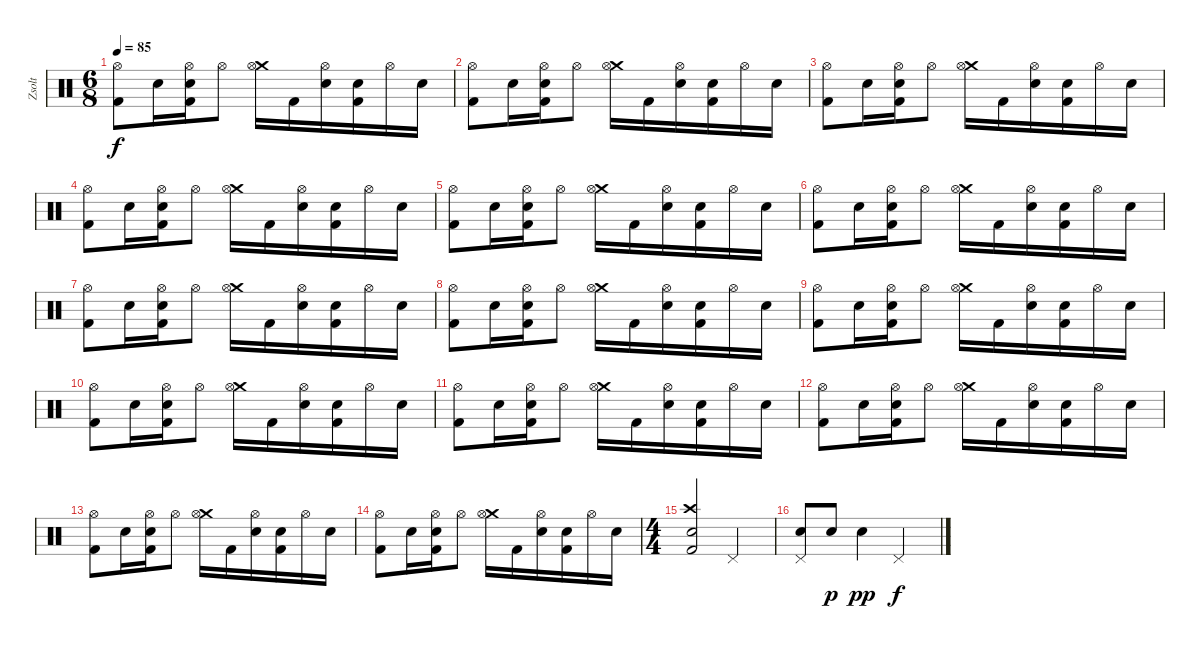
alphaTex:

\track ("Zsolt" "Zsolt") {instrument percussion}
\staff {score}
\articulation defaults
\ts (6 8)
\tempo 85
\clef neutral
\ks c
("Hi-Hat (open)" "Kick (hit) 2").8{dy f} "Snare (hit) 2".16 ("Hi-Hat (open)" "Snare (hit) 2" "Kick (hit) 2").16 "Hi-Hat (open)".8 ("Crash medium (hit)" "Hi-Hat (open)").16 "Kick (hit) 2".16 ("Hi-Hat (open)" "Snare (hit) 2").16 ("Snare (hit) 2" "Kick (hit) 2").16 "Hi-Hat (open)".16 "Snare (hit) 2".16 |
("Hi-Hat (open)" "Kick (hit) 2").8 "Snare (hit) 2".16 ("Hi-Hat (open)" "Snare (hit) 2" "Kick (hit) 2").16 "Hi-Hat (open)".8 ("Crash medium (hit)" "Hi-Hat (open)").16 "Kick (hit) 2".16 ("Hi-Hat (open)" "Snare (hit) 2").16 ("Snare (hit) 2" "Kick (hit) 2").16 "Hi-Hat (open)".16 "Snare (hit) 2".16 |
("Hi-Hat (open)" "Kick (hit) 2").8 "Snare (hit) 2".16 ("Hi-Hat (open)" "Snare (hit) 2" "Kick (hit) 2").16 "Hi-Hat (open)".8 ("Crash medium (hit)" "Hi-Hat (open)").16 "Kick (hit) 2".16 ("Hi-Hat (open)" "Snare (hit) 2").16 ("Snare (hit) 2" "Kick (hit) 2").16 "Hi-Hat (open)".16 "Snare (hit) 2".16 |
("Hi-Hat (open)" "Kick (hit) 2").8 "Snare (hit) 2".16 ("Hi-Hat (open)" "Snare (hit) 2" "Kick (hit) 2").16 "Hi-Hat (open)".8 ("Crash medium (hit)" "Hi-Hat (open)").16 "Kick (hit) 2".16 ("Hi-Hat (open)" "Snare (hit) 2").16 ("Snare (hit) 2" "Kick (hit) 2").16 "Hi-Hat (open)".16 "Snare (hit) 2".16 |
("Hi-Hat (open)" "Kick (hit) 2").8 "Snare (hit) 2".16 ("Hi-Hat (open)" "Snare (hit) 2" "Kick (hit) 2").16 "Hi-Hat (open)".8 ("Crash medium (hit)" "Hi-Hat (open)").16 "Kick (hit) 2".16 ("Hi-Hat (open)" "Snare (hit) 2").16 ("Snare (hit) 2" "Kick (hit) 2").16 "Hi-Hat (open)".16 "Snare (hit) 2".16 |
("Hi-Hat (open)" "Kick (hit) 2").8 "Snare (hit) 2".16 ("Hi-Hat (open)" "Snare (hit) 2" "Kick (hit) 2").16 "Hi-Hat (open)".8 ("Crash medium (hit)" "Hi-Hat (open)").16 "Kick (hit) 2".16 ("Hi-Hat (open)" "Snare (hit) 2").16 ("Snare (hit) 2" "Kick (hit) 2").16 "Hi-Hat (open)".16 "Snare (hit) 2".16 |
("Hi-Hat (open)" "Kick (hit) 2").8 "Snare (hit) 2".16 ("Hi-Hat (open)" "Snare (hit) 2" "Kick (hit) 2").16 "Hi-Hat (open)".8 ("Crash medium (hit)" "Hi-Hat (open)").16 "Kick (hit) 2".16 ("Hi-Hat (open)" "Snare (hit) 2").16 ("Snare (hit) 2" "Kick (hit) 2").16 "Hi-Hat (open)".16 "Snare (hit) 2".16 |
("Hi-Hat (open)" "Kick (hit) 2").8 "Snare (hit) 2".16 ("Hi-Hat (open)" "Snare (hit) 2" "Kick (hit) 2").16 "Hi-Hat (open)".8 ("Crash medium (hit)" "Hi-Hat (open)").16 "Kick (hit) 2".16 ("Hi-Hat (open)" "Snare (hit) 2").16 ("Snare (hit) 2" "Kick (hit) 2").16 "Hi-Hat (open)".16 "Snare (hit) 2".16 |
("Hi-Hat (open)" "Kick (hit) 2").8 "Snare (hit) 2".16 ("Hi-Hat (open)" "Snare (hit) 2" "Kick (hit) 2").16 "Hi-Hat (open)".8 ("Crash medium (hit)" "Hi-Hat (open)").16 "Kick (hit) 2".16 ("Hi-Hat (open)" "Snare (hit) 2").16 ("Snare (hit) 2" "Kick (hit) 2").16 "Hi-Hat (open)".16 "Snare (hit) 2".16 |
("Hi-Hat (open)" "Kick (hit) 2").8 "Snare (hit) 2".16 ("Hi-Hat (open)" "Snare (hit) 2" "Kick (hit) 2").16 "Hi-Hat (open)".8 ("Crash medium (hit)" "Hi-Hat (open)").16 "Kick (hit) 2".16 ("Hi-Hat (open)" "Snare (hit) 2").16 ("Snare (hit) 2" "Kick (hit) 2").16 "Hi-Hat (open)".16 "Snare (hit) 2".16 |
("Hi-Hat (open)" "Kick (hit) 2").8 "Snare (hit) 2".16 ("Hi-Hat (open)" "Snare (hit) 2" "Kick (hit) 2").16 "Hi-Hat (open)".8 ("Crash medium (hit)" "Hi-Hat (open)").16 "Kick (hit) 2".16 ("Hi-Hat (open)" "Snare (hit) 2").16 ("Snare (hit) 2" "Kick (hit) 2").16 "Hi-Hat (open)".16 "Snare (hit) 2".16 |
("Hi-Hat (open)" "Kick (hit) 2").8 "Snare (hit) 2".16 ("Hi-Hat (open)" "Snare (hit) 2" "Kick (hit) 2").16 "Hi-Hat (open)".8 ("Crash medium (hit)" "Hi-Hat (open)").16 "Kick (hit) 2".16 ("Hi-Hat (open)" "Snare (hit) 2").16 ("Snare (hit) 2" "Kick (hit) 2").16 "Hi-Hat (open)".16 "Snare (hit) 2".16 |
("Hi-Hat (open)" "Kick (hit) 2").8 "Snare (hit) 2".16 ("Hi-Hat (open)" "Snare (hit) 2" "Kick (hit) 2").16 "Hi-Hat (open)".8 ("Crash medium (hit)" "Hi-Hat (open)").16 "Kick (hit) 2".16 ("Hi-Hat (open)" "Snare (hit) 2").16 ("Snare (hit) 2" "Kick (hit) 2").16 "Hi-Hat (open)".16 "Snare (hit) 2".16 |
("Hi-Hat (open)" "Kick (hit) 2").8 "Snare (hit) 2".16 ("Hi-Hat (open)" "Snare (hit) 2" "Kick (hit) 2").16 "Hi-Hat (open)".8 ("Crash medium (hit)" "Hi-Hat (open)").16 "Kick (hit) 2".16 ("Hi-Hat (open)" "Snare (hit) 2").16 ("Snare (hit) 2" "Kick (hit) 2").16 "Hi-Hat (open)".16 "Snare (hit) 2".16 |
\ts (4 4)
("Crash high (hit)" "Electric Snare (hit)" "Kick (hit) 2").2 "Pedal Hi-Hat (hit)".2 |
("Pedal Hi-Hat (hit)" "Electric Snare (hit)").8 "Electric Snare (hit)".8{dy p} "Electric Snare (hit)".4{dy pp} "Pedal Hi-Hat (hit)".2{dy f}
